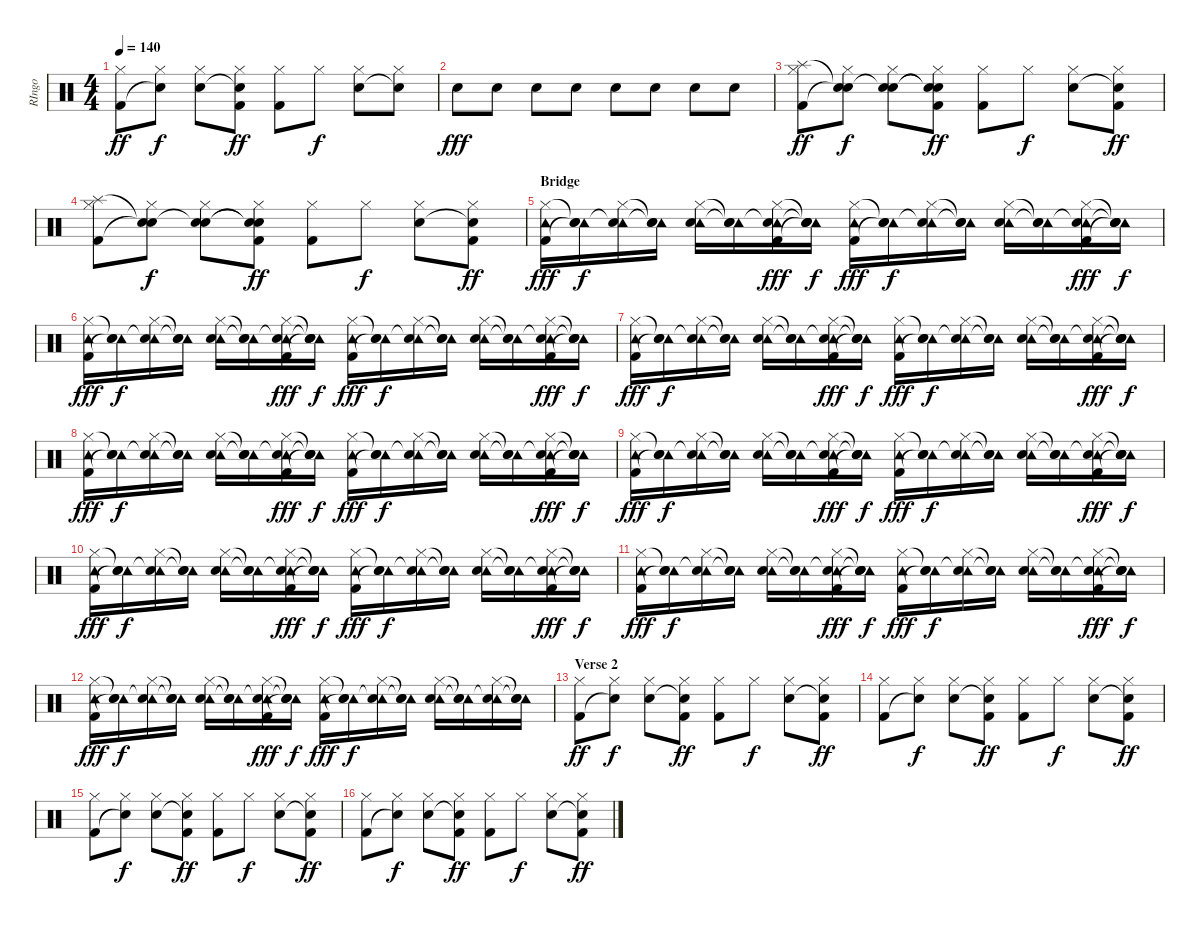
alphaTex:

\track ("RIngo" "RIngo") {instrument percussion}
\staff {score}
\articulation defaults
\ts (4 4)
\tempo 140
\clef neutral
\ks c
("Hi-Hat (closed)" "Kick (hit) 2").8{dy ff} ("Hi-Hat (closed)" "Snare (hit)"{t}).8{dy f} ("Hi-Hat (closed)" "Snare (hit) 2").8 ("Hi-Hat (closed)" "Snare (hit)"{t} "Kick (hit) 2").8{dy ff} ("Hi-Hat (closed)" "Kick (hit) 2").8 "Hi-Hat (closed)".8{dy f} ("Hi-Hat (closed)" "Snare (hit) 2").8 ("Hi-Hat (closed)" "Snare (hit)"{t}).8 |
"Snare (hit) 2".8{dy fff} "Snare (hit) 2".8 "Snare (hit) 2".8 "Snare (hit) 2".8 "Snare (hit) 2".8 "Snare (hit) 2".8 "Snare (hit) 2".8 "Snare (hit) 2".8 |
("Splash (hit)" "Hi-Hat (closed)" "Kick (hit) 2").8{dy ff} ("Snare (hit)"{t} "Hi-Hat (closed)" "Snare (hit)"{t}).8{dy f} ("Snare (hit)"{t} "Hi-Hat (closed)" "Snare (hit) 2").8 ("Snare (hit)"{t} "Hi-Hat (closed)" "Snare (hit)"{t} "Kick (hit) 2").8{dy ff} ("Hi-Hat (closed)" "Kick (hit) 2").8 "Hi-Hat (closed)".8{dy f} ("Hi-Hat (closed)" "Snare (hit) 2").8 ("Hi-Hat (closed)" "Snare (hit)"{t} "Kick (hit) 2").8{dy ff} |
("Splash (hit)" "Hi-Hat (closed)" "Kick (hit) 2").8 ("Snare (hit)"{t} "Hi-Hat (closed)" "Snare (hit)"{t}).8{dy f} ("Snare (hit)"{t} "Hi-Hat (closed)" "Snare (hit) 2").8 ("Snare (hit)"{t} "Hi-Hat (closed)" "Snare (hit)"{t} "Kick (hit) 2").8{dy ff} ("Hi-Hat (closed)" "Kick (hit) 2").8 "Hi-Hat (closed)".8{dy f} ("Hi-Hat (closed)" "Snare (hit) 2").8 ("Hi-Hat (closed)" "Snare (hit)"{t} "Kick (hit) 2").8{dy ff} |
\section ("" "Bridge")
("Tambourine (hit)" "Hi-Hat (closed)" "Kick (hit) 2").16{dy fff} ("Tambourine (hit)" "Snare (hit)"{t} "Snare (hit)"{t}).16{dy f} ("Tambourine (hit)" "Hi-Hat (closed)" "Snare (hit)"{t}).16 ("Tambourine (hit)" "Snare (hit)"{t} "Snare (hit)"{t}).16 ("Tambourine (hit)" "Hi-Hat (closed)" "Snare (hit) 2").16 ("Tambourine (hit)" "Snare (hit)"{t} "Snare (hit)"{t}).16 ("Tambourine (hit)" "Hi-Hat (closed)" "Snare (hit)"{t} "Kick (hit) 2").16{dy fff} ("Tambourine (hit)" "Snare (hit)"{t} "Snare (hit)"{t} "Snare (hit)"{t}).16{dy f} ("Tambourine (hit)" "Hi-Hat (closed)" "Kick (hit) 2").16{dy fff} ("Tambourine (hit)" "Snare (hit)"{t} "Snare (hit)"{t}).16{dy f} ("Tambourine (hit)" "Hi-Hat (closed)" "Snare (hit)"{t}).16 ("Tambourine (hit)" "Snare (hit)"{t} "Snare (hit)"{t}).16 ("Tambourine (hit)" "Hi-Hat (closed)" "Snare (hit) 2").16 ("Tambourine (hit)" "Snare (hit)"{t} "Snare (hit)"{t}).16 ("Tambourine (hit)" "Hi-Hat (closed)" "Snare (hit)"{t} "Kick (hit) 2").16{dy fff} ("Tambourine (hit)" "Snare (hit)"{t} "Snare (hit)"{t} "Snare (hit)"{t}).16{dy f} |
("Tambourine (hit)" "Hi-Hat (closed)" "Kick (hit) 2").16{dy fff} ("Tambourine (hit)" "Snare (hit)"{t} "Snare (hit)"{t}).16{dy f} ("Tambourine (hit)" "Hi-Hat (closed)" "Snare (hit)"{t}).16 ("Tambourine (hit)" "Snare (hit)"{t} "Snare (hit)"{t}).16 ("Tambourine (hit)" "Hi-Hat (closed)" "Snare (hit) 2").16 ("Tambourine (hit)" "Snare (hit)"{t} "Snare (hit)"{t}).16 ("Tambourine (hit)" "Hi-Hat (closed)" "Snare (hit)"{t} "Kick (hit) 2").16{dy fff} ("Tambourine (hit)" "Snare (hit)"{t} "Snare (hit)"{t} "Snare (hit)"{t}).16{dy f} ("Tambourine (hit)" "Hi-Hat (closed)" "Kick (hit) 2").16{dy fff} ("Tambourine (hit)" "Snare (hit)"{t} "Snare (hit)"{t}).16{dy f} ("Tambourine (hit)" "Hi-Hat (closed)" "Snare (hit)"{t}).16 ("Tambourine (hit)" "Snare (hit)"{t} "Snare (hit)"{t}).16 ("Tambourine (hit)" "Hi-Hat (closed)" "Snare (hit) 2").16 ("Tambourine (hit)" "Snare (hit)"{t} "Snare (hit)"{t}).16 ("Tambourine (hit)" "Hi-Hat (closed)" "Snare (hit)"{t} "Kick (hit) 2").16{dy fff} ("Tambourine (hit)" "Snare (hit)"{t} "Snare (hit)"{t} "Snare (hit)"{t}).16{dy f} |
("Tambourine (hit)" "Hi-Hat (closed)" "Kick (hit) 2").16{dy fff} ("Tambourine (hit)" "Snare (hit)"{t} "Snare (hit)"{t}).16{dy f} ("Tambourine (hit)" "Hi-Hat (closed)" "Snare (hit)"{t}).16 ("Tambourine (hit)" "Snare (hit)"{t} "Snare (hit)"{t}).16 ("Tambourine (hit)" "Hi-Hat (closed)" "Snare (hit) 2").16 ("Tambourine (hit)" "Snare (hit)"{t} "Snare (hit)"{t}).16 ("Tambourine (hit)" "Hi-Hat (closed)" "Snare (hit)"{t} "Kick (hit) 2").16{dy fff} ("Tambourine (hit)" "Snare (hit)"{t} "Snare (hit)"{t} "Snare (hit)"{t}).16{dy f} ("Tambourine (hit)" "Hi-Hat (closed)" "Kick (hit) 2").16{dy fff} ("Tambourine (hit)" "Snare (hit)"{t} "Snare (hit)"{t}).16{dy f} ("Tambourine (hit)" "Hi-Hat (closed)" "Snare (hit)"{t}).16 ("Tambourine (hit)" "Snare (hit)"{t} "Snare (hit)"{t}).16 ("Tambourine (hit)" "Hi-Hat (closed)" "Snare (hit) 2").16 ("Tambourine (hit)" "Snare (hit)"{t} "Snare (hit)"{t}).16 ("Tambourine (hit)" "Hi-Hat (closed)" "Snare (hit)"{t} "Kick (hit) 2").16{dy fff} ("Tambourine (hit)" "Snare (hit)"{t} "Snare (hit)"{t} "Snare (hit)"{t}).16{dy f} |
("Tambourine (hit)" "Hi-Hat (closed)" "Kick (hit) 2").16{dy fff} ("Tambourine (hit)" "Snare (hit)"{t} "Snare (hit)"{t}).16{dy f} ("Tambourine (hit)" "Hi-Hat (closed)" "Snare (hit)"{t}).16 ("Tambourine (hit)" "Snare (hit)"{t} "Snare (hit)"{t}).16 ("Tambourine (hit)" "Hi-Hat (closed)" "Snare (hit) 2").16 ("Tambourine (hit)" "Snare (hit)"{t} "Snare (hit)"{t}).16 ("Tambourine (hit)" "Hi-Hat (closed)" "Snare (hit)"{t} "Kick (hit) 2").16{dy fff} ("Tambourine (hit)" "Snare (hit)"{t} "Snare (hit)"{t} "Snare (hit)"{t}).16{dy f} ("Tambourine (hit)" "Hi-Hat (closed)" "Kick (hit) 2").16{dy fff} ("Tambourine (hit)" "Snare (hit)"{t} "Snare (hit)"{t}).16{dy f} ("Tambourine (hit)" "Hi-Hat (closed)" "Snare (hit)"{t}).16 ("Tambourine (hit)" "Snare (hit)"{t} "Snare (hit)"{t}).16 ("Tambourine (hit)" "Hi-Hat (closed)" "Snare (hit) 2").16 ("Tambourine (hit)" "Snare (hit)"{t} "Snare (hit)"{t}).16 ("Tambourine (hit)" "Hi-Hat (closed)" "Snare (hit)"{t} "Kick (hit) 2").16{dy fff} ("Tambourine (hit)" "Snare (hit)"{t} "Snare (hit)"{t} "Snare (hit)"{t}).16{dy f} |
("Tambourine (hit)" "Hi-Hat (closed)" "Kick (hit) 2").16{dy fff} ("Tambourine (hit)" "Snare (hit)"{t} "Snare (hit)"{t}).16{dy f} ("Tambourine (hit)" "Hi-Hat (closed)" "Snare (hit)"{t}).16 ("Tambourine (hit)" "Snare (hit)"{t} "Snare (hit)"{t}).16 ("Tambourine (hit)" "Hi-Hat (closed)" "Snare (hit) 2").16 ("Tambourine (hit)" "Snare (hit)"{t} "Snare (hit)"{t}).16 ("Tambourine (hit)" "Hi-Hat (closed)" "Snare (hit)"{t} "Kick (hit) 2").16{dy fff} ("Tambourine (hit)" "Snare (hit)"{t} "Snare (hit)"{t} "Snare (hit)"{t}).16{dy f} ("Tambourine (hit)" "Hi-Hat (closed)" "Kick (hit) 2").16{dy fff} ("Tambourine (hit)" "Snare (hit)"{t} "Snare (hit)"{t}).16{dy f} ("Tambourine (hit)" "Hi-Hat (closed)" "Snare (hit)"{t}).16 ("Tambourine (hit)" "Snare (hit)"{t} "Snare (hit)"{t}).16 ("Tambourine (hit)" "Hi-Hat (closed)" "Snare (hit) 2").16 ("Tambourine (hit)" "Snare (hit)"{t} "Snare (hit)"{t}).16 ("Tambourine (hit)" "Hi-Hat (closed)" "Snare (hit)"{t} "Kick (hit) 2").16{dy fff} ("Tambourine (hit)" "Snare (hit)"{t} "Snare (hit)"{t} "Snare (hit)"{t}).16{dy f} |
("Tambourine (hit)" "Hi-Hat (closed)" "Kick (hit) 2").16{dy fff} ("Tambourine (hit)" "Snare (hit)"{t} "Snare (hit)"{t}).16{dy f} ("Tambourine (hit)" "Hi-Hat (closed)" "Snare (hit)"{t}).16 ("Tambourine (hit)" "Snare (hit)"{t} "Snare (hit)"{t}).16 ("Tambourine (hit)" "Hi-Hat (closed)" "Snare (hit) 2").16 ("Tambourine (hit)" "Snare (hit)"{t} "Snare (hit)"{t}).16 ("Tambourine (hit)" "Hi-Hat (closed)" "Snare (hit)"{t} "Kick (hit) 2").16{dy fff} ("Tambourine (hit)" "Snare (hit)"{t} "Snare (hit)"{t} "Snare (hit)"{t}).16{dy f} ("Tambourine (hit)" "Hi-Hat (closed)" "Kick (hit) 2").16{dy fff} ("Tambourine (hit)" "Snare (hit)"{t} "Snare (hit)"{t}).16{dy f} ("Tambourine (hit)" "Hi-Hat (closed)" "Snare (hit)"{t}).16 ("Tambourine (hit)" "Snare (hit)"{t} "Snare (hit)"{t}).16 ("Tambourine (hit)" "Hi-Hat (closed)" "Snare (hit) 2").16 ("Tambourine (hit)" "Snare (hit)"{t} "Snare (hit)"{t}).16 ("Tambourine (hit)" "Hi-Hat (closed)" "Snare (hit)"{t} "Kick (hit) 2").16{dy fff} ("Tambourine (hit)" "Snare (hit)"{t} "Snare (hit)"{t} "Snare (hit)"{t}).16{dy f} |
("Tambourine (hit)" "Hi-Hat (closed)" "Kick (hit) 2").16{dy fff} ("Tambourine (hit)" "Snare (hit)"{t} "Snare (hit)"{t}).16{dy f} ("Tambourine (hit)" "Hi-Hat (closed)" "Snare (hit)"{t}).16 ("Tambourine (hit)" "Snare (hit)"{t} "Snare (hit)"{t}).16 ("Tambourine (hit)" "Hi-Hat (closed)" "Snare (hit) 2").16 ("Tambourine (hit)" "Snare (hit)"{t} "Snare (hit)"{t}).16 ("Tambourine (hit)" "Hi-Hat (closed)" "Snare (hit)"{t} "Kick (hit) 2").16{dy fff} ("Tambourine (hit)" "Snare (hit)"{t} "Snare (hit)"{t} "Snare (hit)"{t}).16{dy f} ("Tambourine (hit)" "Hi-Hat (closed)" "Kick (hit) 2").16{dy fff} ("Tambourine (hit)" "Snare (hit)"{t} "Snare (hit)"{t}).16{dy f} ("Tambourine (hit)" "Hi-Hat (closed)" "Snare (hit)"{t}).16 ("Tambourine (hit)" "Snare (hit)"{t} "Snare (hit)"{t}).16 ("Tambourine (hit)" "Hi-Hat (closed)" "Snare (hit) 2").16 ("Tambourine (hit)" "Snare (hit)"{t} "Snare (hit)"{t}).16 ("Tambourine (hit)" "Hi-Hat (closed)" "Snare (hit)"{t} "Kick (hit) 2").16{dy fff} ("Tambourine (hit)" "Snare (hit)"{t} "Snare (hit)"{t} "Snare (hit)"{t}).16{dy f} |
("Tambourine (hit)" "Hi-Hat (closed)" "Kick (hit) 2").16{dy fff} ("Tambourine (hit)" "Snare (hit)"{t} "Snare (hit)"{t}).16{dy f} ("Tambourine (hit)" "Hi-Hat (closed)" "Snare (hit)"{t}).16 ("Tambourine (hit)" "Snare (hit)"{t} "Snare (hit)"{t}).16 ("Tambourine (hit)" "Hi-Hat (closed)" "Snare (hit) 2").16 ("Tambourine (hit)" "Snare (hit)"{t} "Snare (hit)"{t}).16 ("Tambourine (hit)" "Hi-Hat (closed)" "Snare (hit)"{t} "Kick (hit) 2").16{dy fff} ("Tambourine (hit)" "Snare (hit)"{t} "Snare (hit)"{t} "Snare (hit)"{t}).16{dy f} ("Tambourine (hit)" "Hi-Hat (closed)" "Kick (hit) 2").16{dy fff} ("Tambourine (hit)" "Snare (hit)"{t} "Snare (hit)"{t}).16{dy f} ("Tambourine (hit)" "Hi-Hat (closed)" "Snare (hit)"{t}).16 ("Tambourine (hit)" "Snare (hit)"{t} "Snare (hit)"{t}).16 ("Tambourine (hit)" "Hi-Hat (closed)" "Snare (hit) 2").16 ("Tambourine (hit)" "Snare (hit)"{t} "Snare (hit)"{t}).16 ("Tambourine (hit)" "Hi-Hat (closed)" "Snare (hit)"{t}).16 ("Tambourine (hit)" "Snare (hit)"{t} "Snare (hit)"{t}).16 |
\section ("" "Verse 2")
("Hi-Hat (closed)" "Kick (hit) 2").8{dy ff} ("Hi-Hat (closed)" "Snare (hit)"{t}).8{dy f} ("Hi-Hat (closed)" "Snare (hit) 2").8 ("Hi-Hat (closed)" "Snare (hit)"{t} "Kick (hit) 2").8{dy ff} ("Hi-Hat (closed)" "Kick (hit) 2").8 "Hi-Hat (closed)".8{dy f} ("Hi-Hat (closed)" "Snare (hit) 2").8 ("Hi-Hat (closed)" "Snare (hit)"{t} "Kick (hit) 2").8{dy ff} |
("Hi-Hat (closed)" "Kick (hit) 2").8 ("Hi-Hat (closed)" "Snare (hit)"{t}).8{dy f} ("Hi-Hat (closed)" "Snare (hit) 2").8 ("Hi-Hat (closed)" "Snare (hit)"{t} "Kick (hit) 2").8{dy ff} ("Hi-Hat (closed)" "Kick (hit) 2").8 "Hi-Hat (closed)".8{dy f} ("Hi-Hat (closed)" "Snare (hit) 2").8 ("Hi-Hat (closed)" "Snare (hit)"{t} "Kick (hit) 2").8{dy ff} |
("Hi-Hat (closed)" "Kick (hit) 2").8 ("Hi-Hat (closed)" "Snare (hit)"{t}).8{dy f} ("Hi-Hat (closed)" "Snare (hit) 2").8 ("Hi-Hat (closed)" "Snare (hit)"{t} "Kick (hit) 2").8{dy ff} ("Hi-Hat (closed)" "Kick (hit) 2").8 "Hi-Hat (closed)".8{dy f} ("Hi-Hat (closed)" "Snare (hit) 2").8 ("Hi-Hat (closed)" "Snare (hit)"{t} "Kick (hit) 2").8{dy ff} |
("Hi-Hat (closed)" "Kick (hit) 2").8 ("Hi-Hat (closed)" "Snare (hit)"{t}).8{dy f} ("Hi-Hat (closed)" "Snare (hit) 2").8 ("Hi-Hat (closed)" "Snare (hit)"{t} "Kick (hit) 2").8{dy ff} ("Hi-Hat (closed)" "Kick (hit) 2").8 "Hi-Hat (closed)".8{dy f} ("Hi-Hat (closed)" "Snare (hit) 2").8 ("Hi-Hat (closed)" "Snare (hit)"{t} "Kick (hit) 2").8{dy ff}
